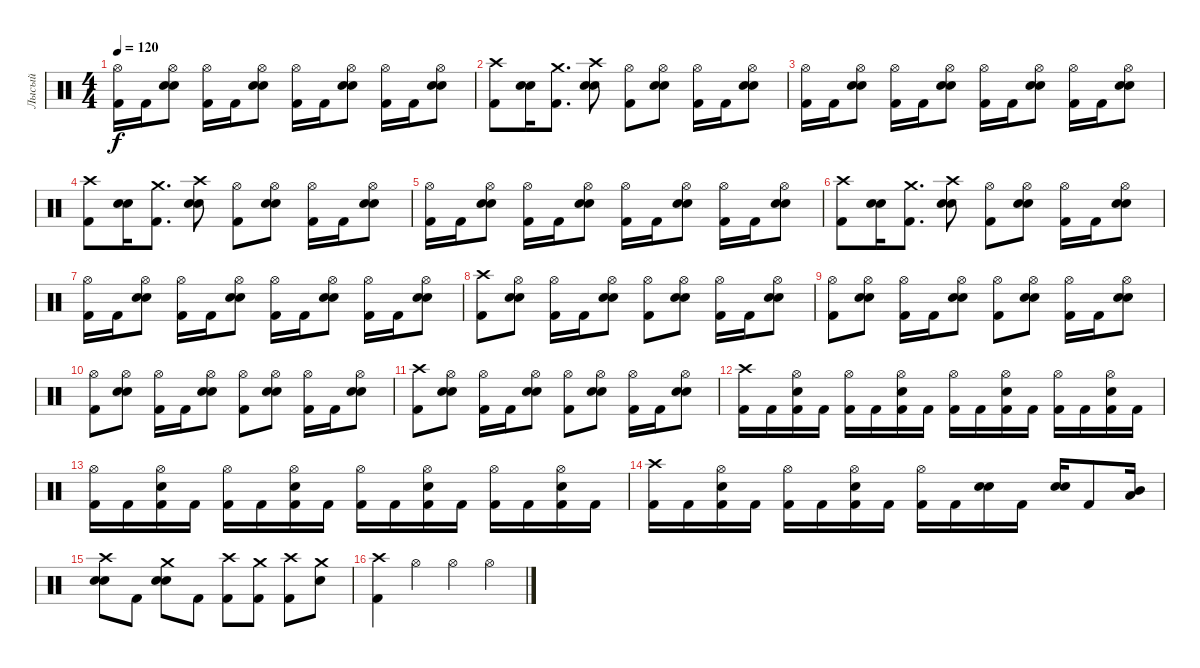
\track ("Лысый" "Лысый") {instrument percussion}
\staff {score}
\articulation defaults
\ts (4 4)
\tempo 120
\clef neutral
\ks c
("Hi-Hat (open)" "Kick (hit) 2").16{dy f} "Kick (hit) 2".16 ("Snare (hit) 2" "Electric Snare (hit)" "Hi-Hat (open)").8 ("Hi-Hat (open)" "Kick (hit) 2").16 "Kick (hit) 2".16 ("Snare (hit) 2" "Electric Snare (hit)" "Hi-Hat (open)").8 ("Hi-Hat (open)" "Kick (hit) 2").16 "Kick (hit) 2".16 ("Snare (hit) 2" "Electric Snare (hit)" "Hi-Hat (open)").8 ("Hi-Hat (open)" "Kick (hit) 2").16 "Kick (hit) 2".16 ("Snare (hit) 2" "Electric Snare (hit)" "Hi-Hat (open)").8 |
("Kick (hit) 2" "Crash high (hit)").8 ("Snare (hit) 2" "Electric Snare (hit)").16 ("Kick (hit) 2" "Crash medium (hit)").8{d} ("Snare (hit) 2" "Electric Snare (hit)" "Crash high (hit)").8 ("Kick (hit) 2" "Hi-Hat (open)").8 ("Snare (hit) 2" "Electric Snare (hit)" "Hi-Hat (open)").8 ("Hi-Hat (open)" "Kick (hit) 2").16 "Kick (hit) 2".16 ("Snare (hit) 2" "Electric Snare (hit)" "Hi-Hat (open)").8 |
("Hi-Hat (open)" "Kick (hit) 2").16 "Kick (hit) 2".16 ("Snare (hit) 2" "Electric Snare (hit)" "Hi-Hat (open)").8 ("Hi-Hat (open)" "Kick (hit) 2").16 "Kick (hit) 2".16 ("Snare (hit) 2" "Electric Snare (hit)" "Hi-Hat (open)").8 ("Hi-Hat (open)" "Kick (hit) 2").16 "Kick (hit) 2".16 ("Snare (hit) 2" "Electric Snare (hit)" "Hi-Hat (open)").8 ("Hi-Hat (open)" "Kick (hit) 2").16 "Kick (hit) 2".16 ("Snare (hit) 2" "Electric Snare (hit)" "Hi-Hat (open)").8 |
("Kick (hit) 2" "Crash high (hit)").8 ("Snare (hit) 2" "Electric Snare (hit)").16 ("Kick (hit) 2" "Crash medium (hit)").8{d} ("Snare (hit) 2" "Electric Snare (hit)" "Crash high (hit)").8 ("Kick (hit) 2" "Hi-Hat (open)").8 ("Snare (hit) 2" "Electric Snare (hit)" "Hi-Hat (open)").8 ("Hi-Hat (open)" "Kick (hit) 2").16 "Kick (hit) 2".16 ("Snare (hit) 2" "Electric Snare (hit)" "Hi-Hat (open)").8 |
("Hi-Hat (open)" "Kick (hit) 2").16 "Kick (hit) 2".16 ("Snare (hit) 2" "Electric Snare (hit)" "Hi-Hat (open)").8 ("Hi-Hat (open)" "Kick (hit) 2").16 "Kick (hit) 2".16 ("Snare (hit) 2" "Electric Snare (hit)" "Hi-Hat (open)").8 ("Hi-Hat (open)" "Kick (hit) 2").16 "Kick (hit) 2".16 ("Snare (hit) 2" "Electric Snare (hit)" "Hi-Hat (open)").8 ("Hi-Hat (open)" "Kick (hit) 2").16 "Kick (hit) 2".16 ("Snare (hit) 2" "Electric Snare (hit)" "Hi-Hat (open)").8 |
("Kick (hit) 2" "Crash high (hit)").8 ("Snare (hit) 2" "Electric Snare (hit)").16 ("Kick (hit) 2" "Crash medium (hit)").8{d} ("Snare (hit) 2" "Electric Snare (hit)" "Crash high (hit)").8 ("Kick (hit) 2" "Hi-Hat (open)").8 ("Snare (hit) 2" "Electric Snare (hit)" "Hi-Hat (open)").8 ("Hi-Hat (open)" "Kick (hit) 2").16 "Kick (hit) 2".16 ("Snare (hit) 2" "Electric Snare (hit)" "Hi-Hat (open)").8 |
("Hi-Hat (open)" "Kick (hit) 2").16 "Kick (hit) 2".16 ("Snare (hit) 2" "Electric Snare (hit)" "Hi-Hat (open)").8 ("Hi-Hat (open)" "Kick (hit) 2").16 "Kick (hit) 2".16 ("Snare (hit) 2" "Electric Snare (hit)" "Hi-Hat (open)").8 ("Hi-Hat (open)" "Kick (hit) 2").16 "Kick (hit) 2".16 ("Snare (hit) 2" "Electric Snare (hit)" "Hi-Hat (open)").8 ("Hi-Hat (open)" "Kick (hit) 2").16 "Kick (hit) 2".16 ("Snare (hit) 2" "Electric Snare (hit)" "Hi-Hat (open)").8 |
("Kick (hit) 2" "Crash high (hit)").8 ("Snare (hit) 2" "Electric Snare (hit)" "Hi-Hat (open)").8 ("Kick (hit) 2" "Hi-Hat (open)").16 "Kick (hit) 2".16 ("Snare (hit) 2" "Electric Snare (hit)" "Hi-Hat (open)").8 ("Kick (hit) 2" "Hi-Hat (open)").8 ("Snare (hit) 2" "Electric Snare (hit)" "Hi-Hat (open)").8 ("Kick (hit) 2" "Hi-Hat (open)").16 "Kick (hit) 2".16 ("Snare (hit) 2" "Electric Snare (hit)" "Hi-Hat (open)").8 |
("Kick (hit) 2" "Hi-Hat (open)").8 ("Snare (hit) 2" "Electric Snare (hit)" "Hi-Hat (open)").8 ("Kick (hit) 2" "Hi-Hat (open)").16 "Kick (hit) 2".16 ("Snare (hit) 2" "Electric Snare (hit)" "Hi-Hat (open)").8 ("Kick (hit) 2" "Hi-Hat (open)").8 ("Snare (hit) 2" "Electric Snare (hit)" "Hi-Hat (open)").8 ("Kick (hit) 2" "Hi-Hat (open)").16 "Kick (hit) 2".16 ("Snare (hit) 2" "Electric Snare (hit)" "Hi-Hat (open)").8 |
("Kick (hit) 2" "Hi-Hat (open)").8 ("Snare (hit) 2" "Electric Snare (hit)" "Hi-Hat (open)").8 ("Kick (hit) 2" "Hi-Hat (open)").16 "Kick (hit) 2".16 ("Snare (hit) 2" "Electric Snare (hit)" "Hi-Hat (open)").8 ("Kick (hit) 2" "Hi-Hat (open)").8 ("Snare (hit) 2" "Electric Snare (hit)" "Hi-Hat (open)").8 ("Kick (hit) 2" "Hi-Hat (open)").16 "Kick (hit) 2".16 ("Snare (hit) 2" "Electric Snare (hit)" "Hi-Hat (open)").8 |
("Kick (hit) 2" "Crash high (hit)").8 ("Snare (hit) 2" "Electric Snare (hit)" "Hi-Hat (open)").8 ("Kick (hit) 2" "Hi-Hat (open)").16 "Kick (hit) 2".16 ("Snare (hit) 2" "Electric Snare (hit)" "Hi-Hat (open)").8 ("Kick (hit) 2" "Hi-Hat (open)").8 ("Snare (hit) 2" "Electric Snare (hit)" "Hi-Hat (open)").8 ("Kick (hit) 2" "Hi-Hat (open)").16 "Kick (hit) 2".16 ("Snare (hit) 2" "Electric Snare (hit)" "Hi-Hat (open)").8 |
("Kick (hit) 2" "Crash high (hit)").16 "Kick (hit) 2".16 ("Kick (hit) 2" "Snare (hit) 2" "Hi-Hat (open)").16 "Kick (hit) 2".16 ("Kick (hit) 2" "Hi-Hat (open)").16 "Kick (hit) 2".16 ("Kick (hit) 2" "Snare (hit) 2" "Hi-Hat (open)").16 "Kick (hit) 2".16 ("Kick (hit) 2" "Hi-Hat (open)").16 "Kick (hit) 2".16 ("Kick (hit) 2" "Snare (hit) 2" "Hi-Hat (open)").16 "Kick (hit) 2".16 ("Kick (hit) 2" "Hi-Hat (open)").16 "Kick (hit) 2".16 ("Kick (hit) 2" "Snare (hit) 2" "Hi-Hat (open)").16 "Kick (hit) 2".16 |
("Kick (hit) 2" "Hi-Hat (open)").16 "Kick (hit) 2".16 ("Kick (hit) 2" "Snare (hit) 2" "Hi-Hat (open)").16 "Kick (hit) 2".16 ("Kick (hit) 2" "Hi-Hat (open)").16 "Kick (hit) 2".16 ("Kick (hit) 2" "Snare (hit) 2" "Hi-Hat (open)").16 "Kick (hit) 2".16 ("Kick (hit) 2" "Hi-Hat (open)").16 "Kick (hit) 2".16 ("Kick (hit) 2" "Snare (hit) 2" "Hi-Hat (open)").16 "Kick (hit) 2".16 ("Kick (hit) 2" "Hi-Hat (open)").16 "Kick (hit) 2".16 ("Kick (hit) 2" "Snare (hit) 2" "Hi-Hat (open)").16 "Kick (hit) 2".16 |
("Kick (hit) 2" "Crash high (hit)").16 "Kick (hit) 2".16 ("Kick (hit) 2" "Snare (hit) 2" "Hi-Hat (open)").16 "Kick (hit) 2".16 ("Kick (hit) 2" "Hi-Hat (open)").16 "Kick (hit) 2".16 ("Kick (hit) 2" "Snare (hit) 2" "Hi-Hat (open)").16 "Kick (hit) 2".16 ("Kick (hit) 2" "Hi-Hat (open)").16 "Kick (hit) 2".16 ("Snare (hit) 2" "Electric Snare (hit)").16 "Kick (hit) 2".16 ("Snare (hit) 2" "Electric Snare (hit)").16 "Kick (hit) 2".8 ("Mid Tom (hit)" "Low Tom (hit)").16 |
("Snare (hit) 2" "Electric Snare (hit)" "Crash high (hit)").8 "Kick (hit) 2".8 ("Snare (hit) 2" "Electric Snare (hit)" "Crash medium (hit)").8 "Kick (hit) 2".8 ("Kick (hit) 2" "Crash high (hit)").8 ("Kick (hit) 2" "Crash medium (hit)").8 ("Kick (hit) 2" "Crash high (hit)").8 ("Snare (hit) 2" "Crash medium (hit)").8 |
("Kick (hit) 2" "Crash high (hit)").4 "Hi-Hat (open)".4 "Hi-Hat (open)".4 "Hi-Hat (open)".4
